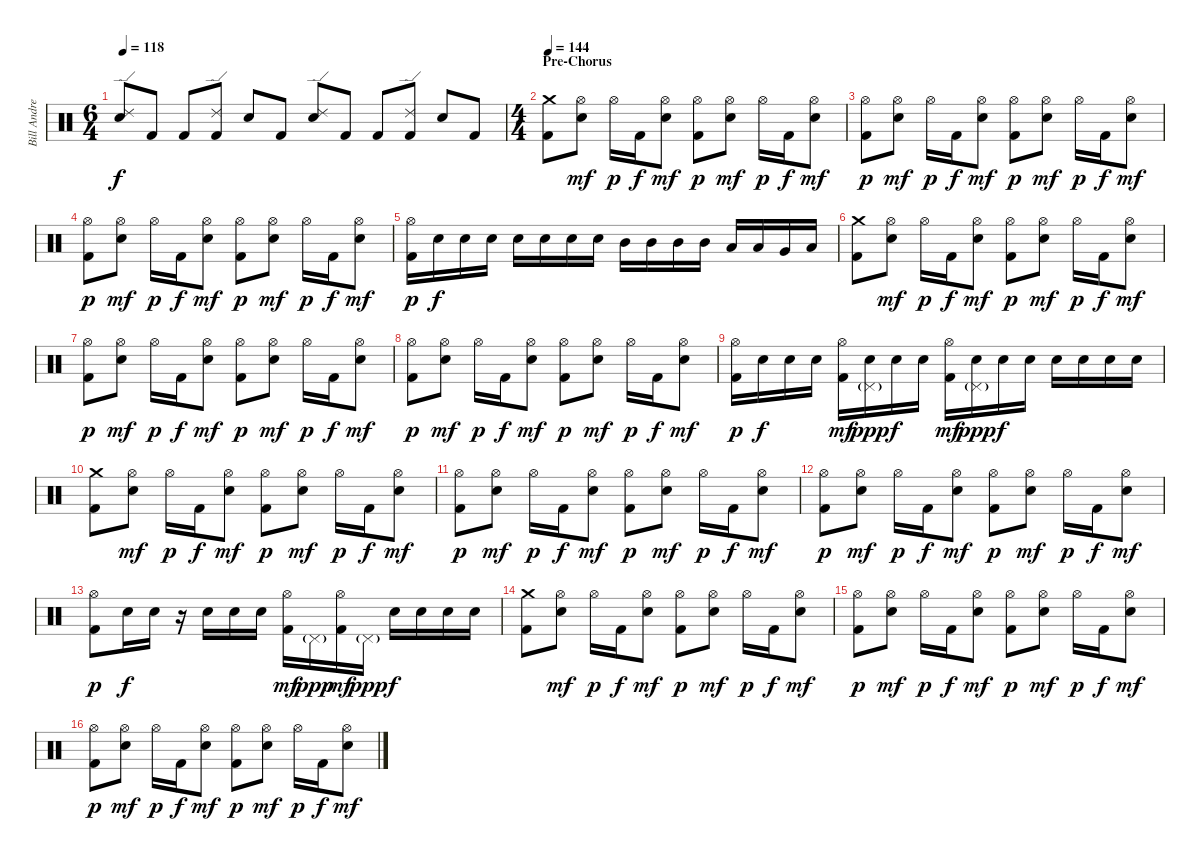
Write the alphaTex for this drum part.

\track ("Bill Andrews" "Bill Andre") {instrument percussion}
\staff {score}
\articulation defaults
\ts (6 4)
\tempo 118
\clef neutral
\ks c
("Ride (edge) 2" "Snare (hit) 2").8{dy f} "Kick (hit) 2".8 "Kick (hit) 2".8 ("Kick (hit) 2" "Ride (edge) 2").8 "Snare (hit) 2".8 "Kick (hit) 2".8 ("Ride (edge) 2" "Snare (hit) 2").8 "Kick (hit) 2".8 "Kick (hit) 2".8 ("Kick (hit) 2" "Ride (edge) 2").8 "Snare (hit) 2".8 "Kick (hit) 2".8 |
\ts (4 4)
\section ("" "Pre-Chorus")
\tempo 144
("Kick (hit) 2" "Crash medium (hit)").8 ("Hi-Hat (open)" "Snare (hit) 2").8{dy mf} "Hi-Hat (open)".16{dy p} "Kick (hit) 2".16{dy f} ("Hi-Hat (open)" "Snare (hit) 2").8{dy mf} ("Kick (hit) 2" "Hi-Hat (open)").8{dy p} ("Hi-Hat (open)" "Snare (hit) 2").8{dy mf} "Hi-Hat (open)".16{dy p} "Kick (hit) 2".16{dy f} ("Hi-Hat (open)" "Snare (hit) 2").8{dy mf} |
("Kick (hit) 2" "Hi-Hat (open)").8{dy p} ("Hi-Hat (open)" "Snare (hit) 2").8{dy mf} "Hi-Hat (open)".16{dy p} "Kick (hit) 2".16{dy f} ("Hi-Hat (open)" "Snare (hit) 2").8{dy mf} ("Kick (hit) 2" "Hi-Hat (open)").8{dy p} ("Hi-Hat (open)" "Snare (hit) 2").8{dy mf} "Hi-Hat (open)".16{dy p} "Kick (hit) 2".16{dy f} ("Hi-Hat (open)" "Snare (hit) 2").8{dy mf} |
("Kick (hit) 2" "Hi-Hat (open)").8{dy p} ("Hi-Hat (open)" "Snare (hit) 2").8{dy mf} "Hi-Hat (open)".16{dy p} "Kick (hit) 2".16{dy f} ("Hi-Hat (open)" "Snare (hit) 2").8{dy mf} ("Kick (hit) 2" "Hi-Hat (open)").8{dy p} ("Hi-Hat (open)" "Snare (hit) 2").8{dy mf} "Hi-Hat (open)".16{dy p} "Kick (hit) 2".16{dy f} ("Hi-Hat (open)" "Snare (hit) 2").8{dy mf} |
("Kick (hit) 2" "Hi-Hat (open)").16{dy p} "Snare (hit) 2".16{dy f} "Snare (hit) 2".16 "Snare (hit) 2".16 "Snare (hit) 2".16 "Snare (hit) 2".16 "Snare (hit) 2".16 "Snare (hit) 2".16 "Mid Tom (hit)".16 "Mid Tom (hit)".16 "Mid Tom (hit)".16 "Mid Tom (hit)".16 "Low Tom (hit)".16 "Low Tom (hit)".16 "Very Low Tom (hit)".16 "Low Floor Tom (hit)".16 |
("Kick (hit) 2" "Crash medium (hit)").8 ("Hi-Hat (open)" "Snare (hit) 2").8{dy mf} "Hi-Hat (open)".16{dy p} "Kick (hit) 2".16{dy f} ("Hi-Hat (open)" "Snare (hit) 2").8{dy mf} ("Kick (hit) 2" "Hi-Hat (open)").8{dy p} ("Hi-Hat (open)" "Snare (hit) 2").8{dy mf} "Hi-Hat (open)".16{dy p} "Kick (hit) 2".16{dy f} ("Hi-Hat (open)" "Snare (hit) 2").8{dy mf} |
("Kick (hit) 2" "Hi-Hat (open)").8{dy p} ("Hi-Hat (open)" "Snare (hit) 2").8{dy mf} "Hi-Hat (open)".16{dy p} "Kick (hit) 2".16{dy f} ("Hi-Hat (open)" "Snare (hit) 2").8{dy mf} ("Kick (hit) 2" "Hi-Hat (open)").8{dy p} ("Hi-Hat (open)" "Snare (hit) 2").8{dy mf} "Hi-Hat (open)".16{dy p} "Kick (hit) 2".16{dy f} ("Hi-Hat (open)" "Snare (hit) 2").8{dy mf} |
("Kick (hit) 2" "Hi-Hat (open)").8{dy p} ("Hi-Hat (open)" "Snare (hit) 2").8{dy mf} "Hi-Hat (open)".16{dy p} "Kick (hit) 2".16{dy f} ("Hi-Hat (open)" "Snare (hit) 2").8{dy mf} ("Kick (hit) 2" "Hi-Hat (open)").8{dy p} ("Hi-Hat (open)" "Snare (hit) 2").8{dy mf} "Hi-Hat (open)".16{dy p} "Kick (hit) 2".16{dy f} ("Hi-Hat (open)" "Snare (hit) 2").8{dy mf} |
("Kick (hit) 2" "Hi-Hat (open)").16{dy p} "Snare (hit) 2".16{dy f} "Snare (hit) 2".16 "Snare (hit) 2".16 ("Kick (hit) 2" "Hi-Hat (open)").16{dy mf} ("Pedal Hi-Hat (hit)"{g} "Snare (hit) 2").16{dy ppp} "Snare (hit) 2".16{dy f} "Snare (hit) 2".16 ("Kick (hit) 2" "Hi-Hat (open)").16{dy mf} ("Pedal Hi-Hat (hit)"{g} "Snare (hit) 2").16{dy ppp} "Snare (hit) 2".16{dy f} "Snare (hit) 2".16 "Snare (hit) 2".16 "Snare (hit) 2".16 "Snare (hit) 2".16 "Snare (hit) 2".16 |
("Kick (hit) 2" "Crash medium (hit)").8 ("Hi-Hat (open)" "Snare (hit) 2").8{dy mf} "Hi-Hat (open)".16{dy p} "Kick (hit) 2".16{dy f} ("Hi-Hat (open)" "Snare (hit) 2").8{dy mf} ("Kick (hit) 2" "Hi-Hat (open)").8{dy p} ("Hi-Hat (open)" "Snare (hit) 2").8{dy mf} "Hi-Hat (open)".16{dy p} "Kick (hit) 2".16{dy f} ("Hi-Hat (open)" "Snare (hit) 2").8{dy mf} |
("Kick (hit) 2" "Hi-Hat (open)").8{dy p} ("Hi-Hat (open)" "Snare (hit) 2").8{dy mf} "Hi-Hat (open)".16{dy p} "Kick (hit) 2".16{dy f} ("Hi-Hat (open)" "Snare (hit) 2").8{dy mf} ("Kick (hit) 2" "Hi-Hat (open)").8{dy p} ("Hi-Hat (open)" "Snare (hit) 2").8{dy mf} "Hi-Hat (open)".16{dy p} "Kick (hit) 2".16{dy f} ("Hi-Hat (open)" "Snare (hit) 2").8{dy mf} |
("Kick (hit) 2" "Hi-Hat (open)").8{dy p} ("Hi-Hat (open)" "Snare (hit) 2").8{dy mf} "Hi-Hat (open)".16{dy p} "Kick (hit) 2".16{dy f} ("Hi-Hat (open)" "Snare (hit) 2").8{dy mf} ("Kick (hit) 2" "Hi-Hat (open)").8{dy p} ("Hi-Hat (open)" "Snare (hit) 2").8{dy mf} "Hi-Hat (open)".16{dy p} "Kick (hit) 2".16{dy f} ("Hi-Hat (open)" "Snare (hit) 2").8{dy mf} |
("Kick (hit) 2" "Hi-Hat (open)").8{dy p} "Snare (hit) 2".16{dy f} "Snare (hit) 2".16 r.16 "Snare (hit) 2".16 "Snare (hit) 2".16 "Snare (hit) 2".16 ("Kick (hit) 2" "Hi-Hat (open)").16{dy mf} "Pedal Hi-Hat (hit)"{g}.16{dy ppp} ("Kick (hit) 2" "Hi-Hat (open)").16{dy mf} "Pedal Hi-Hat (hit)"{g}.16{dy ppp} "Snare (hit) 2".16{dy f} "Snare (hit) 2".16 "Snare (hit) 2".16 "Snare (hit) 2".16 |
("Kick (hit) 2" "Crash medium (hit)").8 ("Hi-Hat (open)" "Snare (hit) 2").8{dy mf} "Hi-Hat (open)".16{dy p} "Kick (hit) 2".16{dy f} ("Hi-Hat (open)" "Snare (hit) 2").8{dy mf} ("Kick (hit) 2" "Hi-Hat (open)").8{dy p} ("Hi-Hat (open)" "Snare (hit) 2").8{dy mf} "Hi-Hat (open)".16{dy p} "Kick (hit) 2".16{dy f} ("Hi-Hat (open)" "Snare (hit) 2").8{dy mf} |
("Kick (hit) 2" "Hi-Hat (open)").8{dy p} ("Hi-Hat (open)" "Snare (hit) 2").8{dy mf} "Hi-Hat (open)".16{dy p} "Kick (hit) 2".16{dy f} ("Hi-Hat (open)" "Snare (hit) 2").8{dy mf} ("Kick (hit) 2" "Hi-Hat (open)").8{dy p} ("Hi-Hat (open)" "Snare (hit) 2").8{dy mf} "Hi-Hat (open)".16{dy p} "Kick (hit) 2".16{dy f} ("Hi-Hat (open)" "Snare (hit) 2").8{dy mf} |
("Kick (hit) 2" "Hi-Hat (open)").8{dy p} ("Hi-Hat (open)" "Snare (hit) 2").8{dy mf} "Hi-Hat (open)".16{dy p} "Kick (hit) 2".16{dy f} ("Hi-Hat (open)" "Snare (hit) 2").8{dy mf} ("Kick (hit) 2" "Hi-Hat (open)").8{dy p} ("Hi-Hat (open)" "Snare (hit) 2").8{dy mf} "Hi-Hat (open)".16{dy p} "Kick (hit) 2".16{dy f} ("Hi-Hat (open)" "Snare (hit) 2").8{dy mf}
